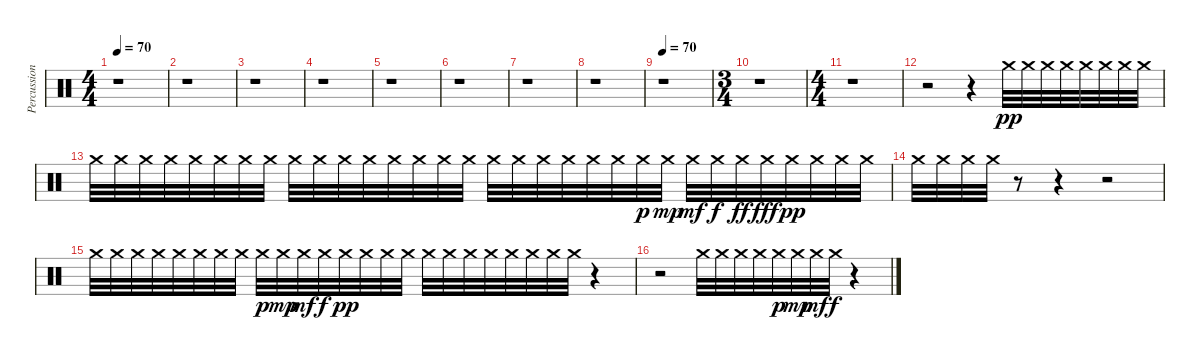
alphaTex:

\track ("Percussion" "Percussion") {instrument percussion}
\staff {score}
\articulation defaults
\ts (4 4)
\tempo 70
\tempo 120
\tempo 70
\clef neutral
\ks c
r.1{dy pp} |
r.1 |
r.1 |
r.1 |
r.1 |
r.1 |
r.1 |
r.1 |
\tempo 70
r.1 |
\ts (3 4)
r.1 |
\ts (4 4)
r.1 |
r.2 r.4 "Crash medium (hit)".32 "Crash medium (hit)".32 "Crash medium (hit)".32 "Crash medium (hit)".32 "Crash medium (hit)".32 "Crash medium (hit)".32 "Crash medium (hit)".32 "Crash medium (hit)".32 |
"Crash medium (hit)".32 "Crash medium (hit)".32 "Crash medium (hit)".32 "Crash medium (hit)".32 "Crash medium (hit)".32 "Crash medium (hit)".32 "Crash medium (hit)".32 "Crash medium (hit)".32 "Crash medium (hit)".32 "Crash medium (hit)".32 "Crash medium (hit)".32 "Crash medium (hit)".32 "Crash medium (hit)".32 "Crash medium (hit)".32 "Crash medium (hit)".32 "Crash medium (hit)".32 "Crash medium (hit)".32 "Crash medium (hit)".32 "Crash medium (hit)".32 "Crash medium (hit)".32 "Crash medium (hit)".32 "Crash medium (hit)".32 "Crash medium (hit)".32{dy p} "Crash medium (hit)".32{dy mp} "Crash medium (hit)".32{dy mf} "Crash medium (hit)".32{dy f} "Crash medium (hit)".32{dy ff} "Crash medium (hit)".32{dy fff} "Crash medium (hit)".32{dy pp} "Crash medium (hit)".32 "Crash medium (hit)".32 "Crash medium (hit)".32 |
"Crash medium (hit)".32 "Crash medium (hit)".32 "Crash medium (hit)".32 "Crash medium (hit)".32 r.8 r.4 r.2 |
"Crash medium (hit)".32 "Crash medium (hit)".32 "Crash medium (hit)".32 "Crash medium (hit)".32 "Crash medium (hit)".32 "Crash medium (hit)".32 "Crash medium (hit)".32 "Crash medium (hit)".32 "Crash medium (hit)".32{dy p} "Crash medium (hit)".32{dy mp} "Crash medium (hit)".32{dy mf} "Crash medium (hit)".32{dy f} "Crash medium (hit)".32{dy pp} "Crash medium (hit)".32 "Crash medium (hit)".32 "Crash medium (hit)".32 "Crash medium (hit)".32 "Crash medium (hit)".32 "Crash medium (hit)".32 "Crash medium (hit)".32 "Crash medium (hit)".32 "Crash medium (hit)".32 "Crash medium (hit)".32 "Crash medium (hit)".32 r.4 |
r.2 "Crash medium (hit)".32 "Crash medium (hit)".32 "Crash medium (hit)".32 "Crash medium (hit)".32 "Crash medium (hit)".32{dy p} "Crash medium (hit)".32{dy mp} "Crash medium (hit)".32{dy mf} "Crash medium (hit)".32{dy f} r.4
